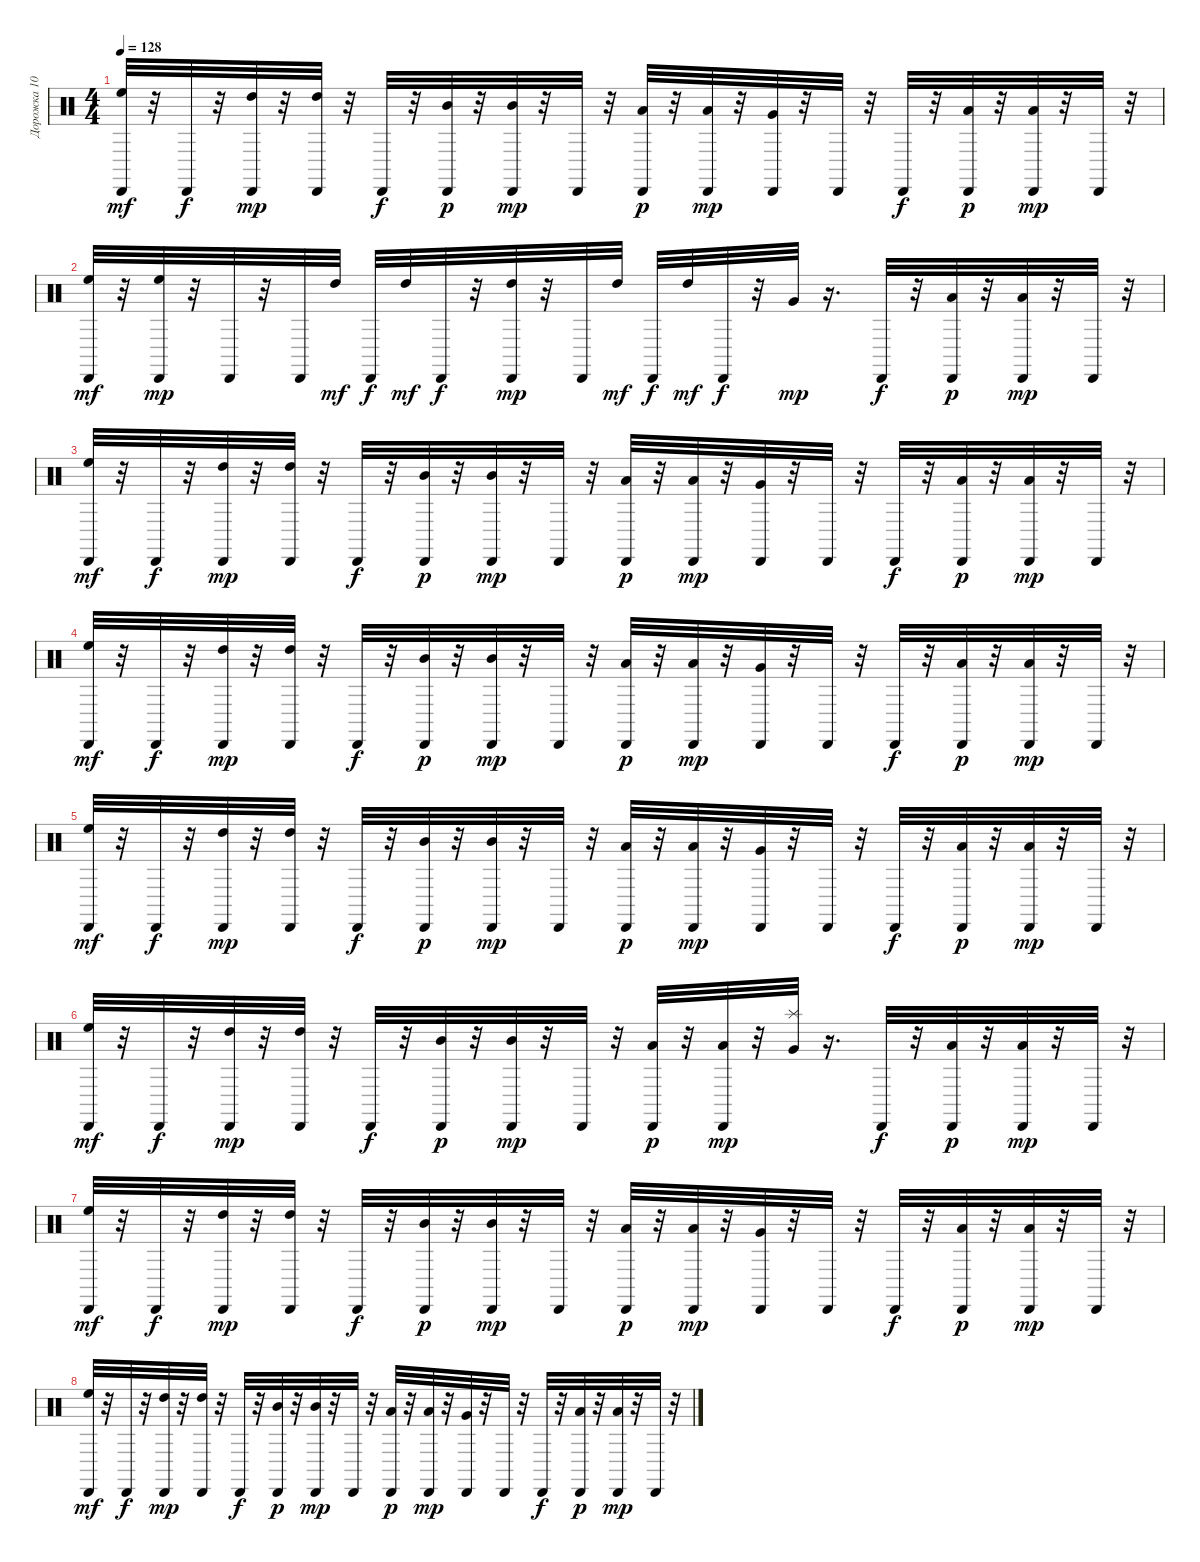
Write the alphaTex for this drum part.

\track ("Дорожка 10" "Дорожка 10") {instrument percussion}
\staff {score}
\articulation defaults
\ts (4 4)
\tempo 128
\clef neutral
\ks c
("High Floor Tom (hit)" "Cabasa (hit)").32{dy mf} r.32 "Cabasa (hit)".32{dy f} r.32 ("High Tom (hit)" "Cabasa (hit)").32{dy mp} r.32 ("Cabasa (hit)" "High Tom (hit)").32 r.32 "Cabasa (hit)".32{dy f} r.32 ("Mid Tom (hit)" "Cabasa (hit)").32{dy p} r.32 ("Cabasa (hit)" "Mid Tom (hit)").32{dy mp} r.32 "Cabasa (hit)".32 r.32 ("Cabasa (hit)" "Low Tom (hit)").32{dy p} r.32 ("Cabasa (hit)" "Low Tom (hit)").32{dy mp} r.32 ("Very Low Tom (hit)" "Cabasa (hit)").32 r.32 "Cabasa (hit)".32 r.32 "Cabasa (hit)".32{dy f} r.32 ("Low Floor Tom (hit)" "Cabasa (hit)").32{dy p} r.32 ("Low Floor Tom (hit)" "Cabasa (hit)").32{dy mp} r.32 "Cabasa (hit)".32 r.32 |
("Cabasa (hit)" "High Floor Tom (hit)").32{dy mf} r.32 ("Cabasa (hit)" "High Floor Tom (hit)").32{dy mp} r.32 "Cabasa (hit)".32 r.32 "Cabasa (hit)".32 "High Tom (hit)".32{dy mf} "Cabasa (hit)".32{dy f} "High Tom (hit)".32{dy mf} "Cabasa (hit)".32{dy f} r.32 ("Cabasa (hit)" "High Tom (hit)").32{dy mp} r.32 "Cabasa (hit)".32 "High Tom (hit)".32{dy mf} "Cabasa (hit)".32{dy f} "High Tom (hit)".32{dy mf} "Cabasa (hit)".32{dy f} r.32 "Very Low Tom (hit)".32{dy mp} r.16{d} "Cabasa (hit)".32{dy f} r.32 ("Low Floor Tom (hit)" "Cabasa (hit)").32{dy p} r.32 ("Low Floor Tom (hit)" "Cabasa (hit)").32{dy mp} r.32 "Cabasa (hit)".32 r.32 |
("High Floor Tom (hit)" "Cabasa (hit)").32{dy mf} r.32 "Cabasa (hit)".32{dy f} r.32 ("High Tom (hit)" "Cabasa (hit)").32{dy mp} r.32 ("Cabasa (hit)" "High Tom (hit)").32 r.32 "Cabasa (hit)".32{dy f} r.32 ("Mid Tom (hit)" "Cabasa (hit)").32{dy p} r.32 ("Cabasa (hit)" "Mid Tom (hit)").32{dy mp} r.32 "Cabasa (hit)".32 r.32 ("Low Tom (hit)" "Cabasa (hit)").32{dy p} r.32 ("Cabasa (hit)" "Low Tom (hit)").32{dy mp} r.32 ("Cabasa (hit)" "Very Low Tom (hit)").32 r.32 "Cabasa (hit)".32 r.32 "Cabasa (hit)".32{dy f} r.32 ("Low Floor Tom (hit)" "Cabasa (hit)").32{dy p} r.32 ("Cabasa (hit)" "Low Floor Tom (hit)").32{dy mp} r.32 "Cabasa (hit)".32 r.32 |
("Cabasa (hit)" "High Floor Tom (hit)").32{dy mf} r.32 "Cabasa (hit)".32{dy f} r.32 ("High Tom (hit)" "Cabasa (hit)").32{dy mp} r.32 ("High Tom (hit)" "Cabasa (hit)").32 r.32 "Cabasa (hit)".32{dy f} r.32 ("Cabasa (hit)" "Mid Tom (hit)").32{dy p} r.32 ("Mid Tom (hit)" "Cabasa (hit)").32{dy mp} r.32 "Cabasa (hit)".32 r.32 ("Low Tom (hit)" "Cabasa (hit)").32{dy p} r.32 ("Low Tom (hit)" "Cabasa (hit)").32{dy mp} r.32 ("Very Low Tom (hit)" "Cabasa (hit)").32 r.32 "Cabasa (hit)".32 r.32 "Cabasa (hit)".32{dy f} r.32 ("Low Floor Tom (hit)" "Cabasa (hit)").32{dy p} r.32 ("Cabasa (hit)" "Low Floor Tom (hit)").32{dy mp} r.32 "Cabasa (hit)".32 r.32 |
("High Floor Tom (hit)" "Cabasa (hit)").32{dy mf} r.32 "Cabasa (hit)".32{dy f} r.32 ("High Tom (hit)" "Cabasa (hit)").32{dy mp} r.32 ("Cabasa (hit)" "High Tom (hit)").32 r.32 "Cabasa (hit)".32{dy f} r.32 ("Mid Tom (hit)" "Cabasa (hit)").32{dy p} r.32 ("Cabasa (hit)" "Mid Tom (hit)").32{dy mp} r.32 "Cabasa (hit)".32 r.32 ("Cabasa (hit)" "Low Tom (hit)").32{dy p} r.32 ("Cabasa (hit)" "Low Tom (hit)").32{dy mp} r.32 ("Very Low Tom (hit)" "Cabasa (hit)").32 r.32 "Cabasa (hit)".32 r.32 "Cabasa (hit)".32{dy f} r.32 ("Low Floor Tom (hit)" "Cabasa (hit)").32{dy p} r.32 ("Low Floor Tom (hit)" "Cabasa (hit)").32{dy mp} r.32 "Cabasa (hit)".32 r.32 |
("Cabasa (hit)" "High Floor Tom (hit)").32{dy mf} r.32 "Cabasa (hit)".32{dy f} r.32 ("Cabasa (hit)" "High Tom (hit)").32{dy mp} r.32 ("High Tom (hit)" "Cabasa (hit)").32 r.32 "Cabasa (hit)".32{dy f} r.32 ("Cabasa (hit)" "Mid Tom (hit)").32{dy p} r.32 ("Cabasa (hit)" "Mid Tom (hit)").32{dy mp} r.32 "Cabasa (hit)".32 r.32 ("Cabasa (hit)" "Low Tom (hit)").32{dy p} r.32 ("Cabasa (hit)" "Low Tom (hit)").32{dy mp} r.32 ("Splash (hit)" "Very Low Tom (hit)").32 r.16{d} "Cabasa (hit)".32{dy f} r.32 ("Low Floor Tom (hit)" "Cabasa (hit)").32{dy p} r.32 ("Low Floor Tom (hit)" "Cabasa (hit)").32{dy mp} r.32 "Cabasa (hit)".32 r.32 |
("High Floor Tom (hit)" "Cabasa (hit)").32{dy mf} r.32 "Cabasa (hit)".32{dy f} r.32 ("High Tom (hit)" "Cabasa (hit)").32{dy mp} r.32 ("Cabasa (hit)" "High Tom (hit)").32 r.32 "Cabasa (hit)".32{dy f} r.32 ("Mid Tom (hit)" "Cabasa (hit)").32{dy p} r.32 ("Cabasa (hit)" "Mid Tom (hit)").32{dy mp} r.32 "Cabasa (hit)".32 r.32 ("Low Tom (hit)" "Cabasa (hit)").32{dy p} r.32 ("Cabasa (hit)" "Low Tom (hit)").32{dy mp} r.32 ("Cabasa (hit)" "Very Low Tom (hit)").32 r.32 "Cabasa (hit)".32 r.32 "Cabasa (hit)".32{dy f} r.32 ("Low Floor Tom (hit)" "Cabasa (hit)").32{dy p} r.32 ("Cabasa (hit)" "Low Floor Tom (hit)").32{dy mp} r.32 "Cabasa (hit)".32 r.32 |
("Cabasa (hit)" "High Floor Tom (hit)").32{dy mf} r.32 "Cabasa (hit)".32{dy f} r.32 ("High Tom (hit)" "Cabasa (hit)").32{dy mp} r.32 ("High Tom (hit)" "Cabasa (hit)").32 r.32 "Cabasa (hit)".32{dy f} r.32 ("Cabasa (hit)" "Mid Tom (hit)").32{dy p} r.32 ("Mid Tom (hit)" "Cabasa (hit)").32{dy mp} r.32 "Cabasa (hit)".32 r.32 ("Low Tom (hit)" "Cabasa (hit)").32{dy p} r.32 ("Low Tom (hit)" "Cabasa (hit)").32{dy mp} r.32 ("Very Low Tom (hit)" "Cabasa (hit)").32 r.32 "Cabasa (hit)".32 r.32 "Cabasa (hit)".32{dy f} r.32 ("Low Floor Tom (hit)" "Cabasa (hit)").32{dy p} r.32 ("Cabasa (hit)" "Low Floor Tom (hit)").32{dy mp} r.32 "Cabasa (hit)".32 r.32
